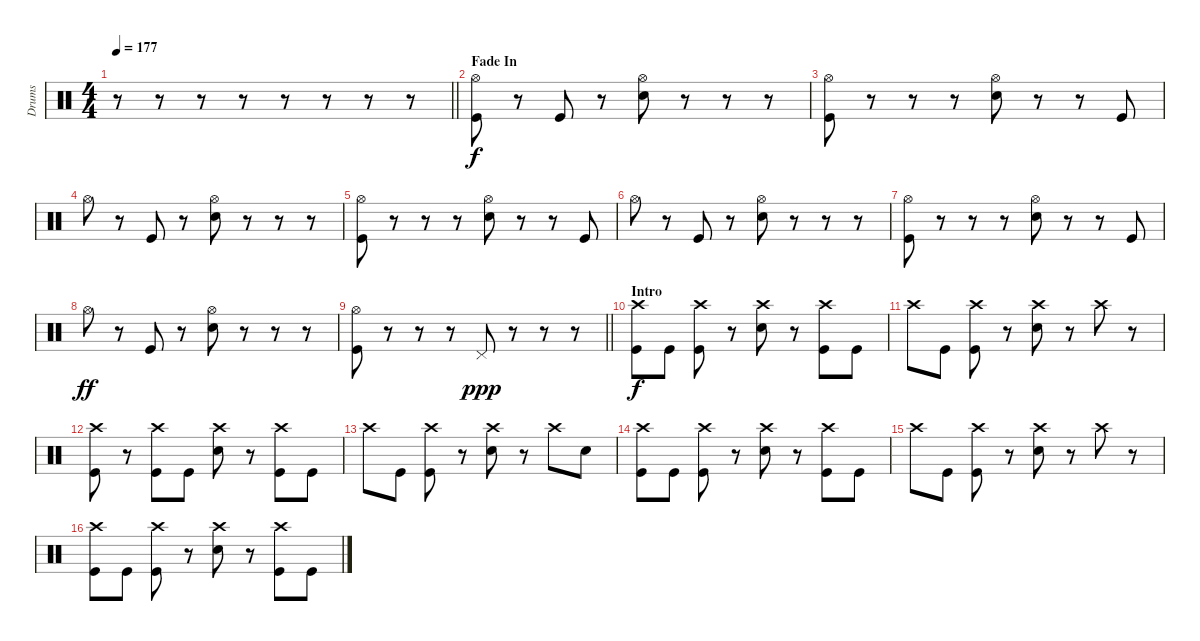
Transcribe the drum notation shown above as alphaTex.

\track ("Drums" "Drums") {instrument percussion}
\staff {score}
\articulation defaults
\ts (4 4)
\tempo 177
\clef neutral
\barLineRight lightlight
\ks c
r.8{dy f} r.8 r.8 r.8 r.8 r.8 r.8 r.8 |
\section ("" "Fade In")
("Hi-Hat (open)" "Kick (hit)").8{volume 2 balance 12} r.8{volume 8} "Kick (hit)".8 r.8 ("Hi-Hat (open)" "Snare (hit) 2").8 r.8 r.8 r.8 |
("Hi-Hat (open)" "Kick (hit)").8{balance 0} r.8 r.8 r.8 ("Hi-Hat (open)" "Snare (hit) 2").8 r.8 r.8 "Kick (hit)".8 |
"Hi-Hat (open)".8{balance 8} r.8 "Kick (hit)".8 r.8 ("Hi-Hat (open)" "Snare (hit) 2").8 r.8 r.8 r.8 |
("Hi-Hat (open)" "Kick (hit)").8 r.8 r.8 r.8 ("Hi-Hat (open)" "Snare (hit) 2").8 r.8 r.8 "Kick (hit)".8 |
"Hi-Hat (open)".8 r.8 "Kick (hit)".8 r.8 ("Hi-Hat (open)" "Snare (hit) 2").8 r.8 r.8 r.8 |
("Hi-Hat (open)" "Kick (hit)").8{volume 10} r.8 r.8 r.8 ("Hi-Hat (open)" "Snare (hit) 2").8 r.8 r.8 "Kick (hit)".8 |
"Hi-Hat (open)".8{dy ff} r.8 "Kick (hit)".8 r.8 ("Hi-Hat (open)" "Snare (hit) 2").8 r.8 r.8 r.8 |
\barLineRight lightlight
("Hi-Hat (open)" "Kick (hit)").8 r.8 r.8 r.8 "Pedal Hi-Hat (hit)".8{dy ppp} r.8 r.8 r.8 |
\section ("" "Intro")
("Crash high (hit)" "Kick (hit)").8{dy f volume 13} "Kick (hit)".8 ("Crash high (hit)" "Kick (hit)").8 r.8 ("Crash high (hit)" "Snare (hit) 2").8 r.8 ("Crash high (hit)" "Kick (hit)").8 "Kick (hit)".8 |
"Crash high (hit)".8 "Kick (hit)".8 ("Crash high (hit)" "Kick (hit)").8 r.8 ("Crash high (hit)" "Snare (hit) 2").8 r.8 "Crash high (hit)".8 r.8 |
("Crash high (hit)" "Kick (hit)").8 r.8 ("Crash high (hit)" "Kick (hit)").8 "Kick (hit)".8 ("Crash high (hit)" "Snare (hit) 2").8 r.8 ("Crash high (hit)" "Kick (hit)").8 "Kick (hit)".8 |
"Crash high (hit)".8 "Kick (hit)".8 ("Crash high (hit)" "Kick (hit)").8 r.8 ("Crash high (hit)" "Snare (hit) 2").8 r.8 "Crash high (hit)".8 "Snare (hit) 2".8 |
("Crash high (hit)" "Kick (hit)").8 "Kick (hit)".8 ("Crash high (hit)" "Kick (hit)").8 r.8 ("Crash high (hit)" "Snare (hit) 2").8 r.8 ("Crash high (hit)" "Kick (hit)").8 "Kick (hit)".8 |
"Crash high (hit)".8 "Kick (hit)".8 ("Crash high (hit)" "Kick (hit)").8 r.8 ("Crash high (hit)" "Snare (hit) 2").8 r.8 "Crash high (hit)".8 r.8 |
("Crash high (hit)" "Kick (hit)").8 "Kick (hit)".8 ("Crash high (hit)" "Kick (hit)").8 r.8 ("Crash high (hit)" "Snare (hit) 2").8 r.8 ("Crash high (hit)" "Kick (hit)").8 "Kick (hit)".8
